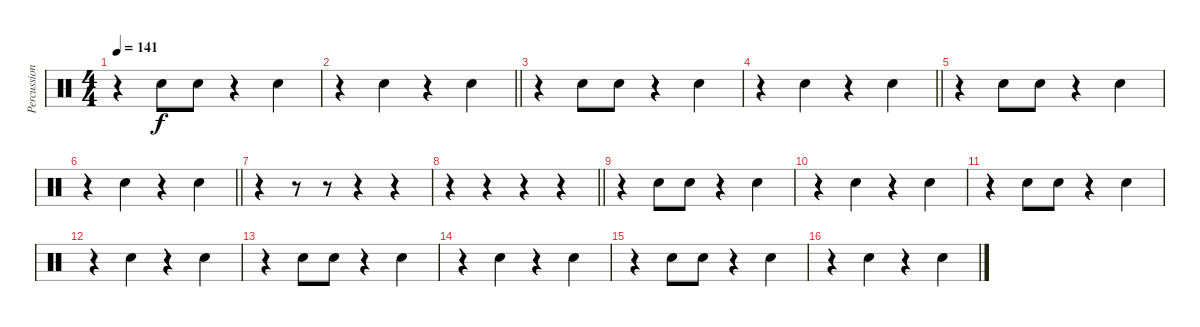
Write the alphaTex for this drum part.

\track ("Percussion" "Percussion") {instrument percussion}
\staff {score}
\articulation defaults
\ts (4 4)
\tempo 141
\clef neutral
\ks c
r.4{dy f} "Hand Clap (hit)".8 "Hand Clap (hit)".8 r.4 "Hand Clap (hit)".4 |
\barLineRight lightlight
r.4 "Hand Clap (hit)".4 r.4 "Hand Clap (hit)".4 |
r.4 "Hand Clap (hit)".8 "Hand Clap (hit)".8 r.4 "Hand Clap (hit)".4 |
\barLineRight lightlight
r.4 "Hand Clap (hit)".4 r.4 "Hand Clap (hit)".4 |
r.4 "Hand Clap (hit)".8 "Hand Clap (hit)".8 r.4 "Hand Clap (hit)".4 |
\barLineRight lightlight
r.4 "Hand Clap (hit)".4 r.4 "Hand Clap (hit)".4 |
r.4 r.8 r.8 r.4 r.4 |
\barLineRight lightlight
r.4 r.4 r.4 r.4 |
r.4 "Hand Clap (hit)".8 "Hand Clap (hit)".8 r.4 "Hand Clap (hit)".4 |
r.4 "Hand Clap (hit)".4 r.4 "Hand Clap (hit)".4 |
r.4 "Hand Clap (hit)".8 "Hand Clap (hit)".8 r.4 "Hand Clap (hit)".4 |
r.4 "Hand Clap (hit)".4 r.4 "Hand Clap (hit)".4 |
r.4 "Hand Clap (hit)".8 "Hand Clap (hit)".8 r.4 "Hand Clap (hit)".4 |
r.4 "Hand Clap (hit)".4 r.4 "Hand Clap (hit)".4 |
r.4 "Hand Clap (hit)".8 "Hand Clap (hit)".8 r.4 "Hand Clap (hit)".4 |
r.4 "Hand Clap (hit)".4 r.4 "Hand Clap (hit)".4
